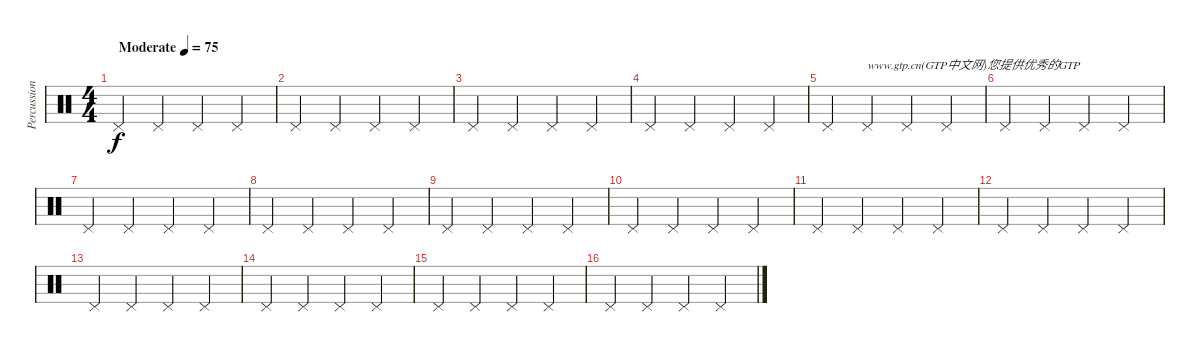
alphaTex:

\track ("Percussion" "Percussion") {instrument percussion}
\staff {score}
\articulation defaults
\ts (4 4)
\tempo (75 "Moderate")
\clef neutral
\ks c "Pedal Hi-Hat (hit)".4{dy f} "Pedal Hi-Hat (hit)".4 "Pedal Hi-Hat (hit)".4 "Pedal Hi-Hat (hit)".4
|
"Pedal Hi-Hat (hit)".4 "Pedal Hi-Hat (hit)".4 "Pedal Hi-Hat (hit)".4 "Pedal Hi-Hat (hit)".4 |
"Pedal Hi-Hat (hit)".4 "Pedal Hi-Hat (hit)".4 "Pedal Hi-Hat (hit)".4 "Pedal Hi-Hat (hit)".4 |
"Pedal Hi-Hat (hit)".4 "Pedal Hi-Hat (hit)".4 "Pedal Hi-Hat (hit)".4 "Pedal Hi-Hat (hit)".4 |
"Pedal Hi-Hat (hit)".4 "Pedal Hi-Hat (hit)".4{txt "www.gtp.cn(GTP中文网)您提供优秀的GTP"} "Pedal Hi-Hat (hit)".4 "Pedal Hi-Hat (hit)".4 |
"Pedal Hi-Hat (hit)".4 "Pedal Hi-Hat (hit)".4 "Pedal Hi-Hat (hit)".4 "Pedal Hi-Hat (hit)".4 |
"Pedal Hi-Hat (hit)".4 "Pedal Hi-Hat (hit)".4 "Pedal Hi-Hat (hit)".4 "Pedal Hi-Hat (hit)".4 |
"Pedal Hi-Hat (hit)".4 "Pedal Hi-Hat (hit)".4 "Pedal Hi-Hat (hit)".4 "Pedal Hi-Hat (hit)".4 |
"Pedal Hi-Hat (hit)".4 "Pedal Hi-Hat (hit)".4 "Pedal Hi-Hat (hit)".4 "Pedal Hi-Hat (hit)".4 |
"Pedal Hi-Hat (hit)".4 "Pedal Hi-Hat (hit)".4 "Pedal Hi-Hat (hit)".4 "Pedal Hi-Hat (hit)".4 |
"Pedal Hi-Hat (hit)".4 "Pedal Hi-Hat (hit)".4 "Pedal Hi-Hat (hit)".4 "Pedal Hi-Hat (hit)".4 |
"Pedal Hi-Hat (hit)".4 "Pedal Hi-Hat (hit)".4 "Pedal Hi-Hat (hit)".4 "Pedal Hi-Hat (hit)".4 |
"Pedal Hi-Hat (hit)".4 "Pedal Hi-Hat (hit)".4 "Pedal Hi-Hat (hit)".4 "Pedal Hi-Hat (hit)".4 |
"Pedal Hi-Hat (hit)".4 "Pedal Hi-Hat (hit)".4 "Pedal Hi-Hat (hit)".4 "Pedal Hi-Hat (hit)".4 |
"Pedal Hi-Hat (hit)".4 "Pedal Hi-Hat (hit)".4 "Pedal Hi-Hat (hit)".4 "Pedal Hi-Hat (hit)".4 |
"Pedal Hi-Hat (hit)".4 "Pedal Hi-Hat (hit)".4 "Pedal Hi-Hat (hit)".4 "Pedal Hi-Hat (hit)".4
